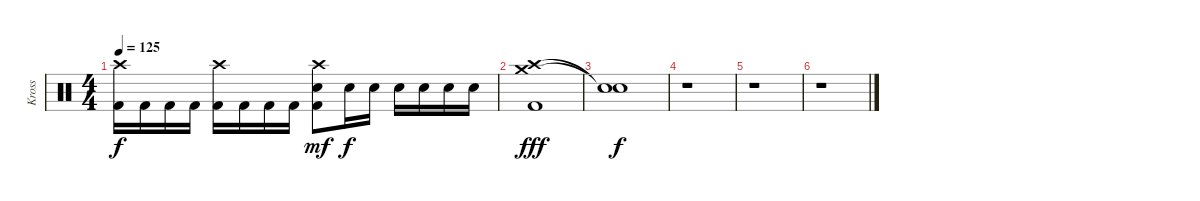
\track ("Kross" "Kross") {instrument percussion}
\staff {score}
\articulation defaults
\ts (4 4)
\tempo 125
\clef neutral
\ks c
("Crash high (hit)" "Kick (hit) 2").16{dy f} "Kick (hit) 2".16 "Kick (hit) 2".16 "Kick (hit) 2".16 ("Crash high (hit)" "Kick (hit) 2").16 "Kick (hit) 2".16 "Kick (hit) 2".16 "Kick (hit) 2".16 ("Crash high (hit)" "Snare (hit) 2" "Kick (hit) 2").8{dy mf} "Snare (hit) 2".16{dy f} "Snare (hit) 2".16 "Snare (hit) 2".16 "Snare (hit) 2".16 "Snare (hit) 2".16 "Snare (hit) 2".16 |
("Crash high (hit)" "Crash medium (hit)" "Kick (hit) 2").1{dy fff} |
("Snare (hit)"{t} "Snare (hit)"{t}).1{dy f} |
r.1 |
r.1 |
r.1
